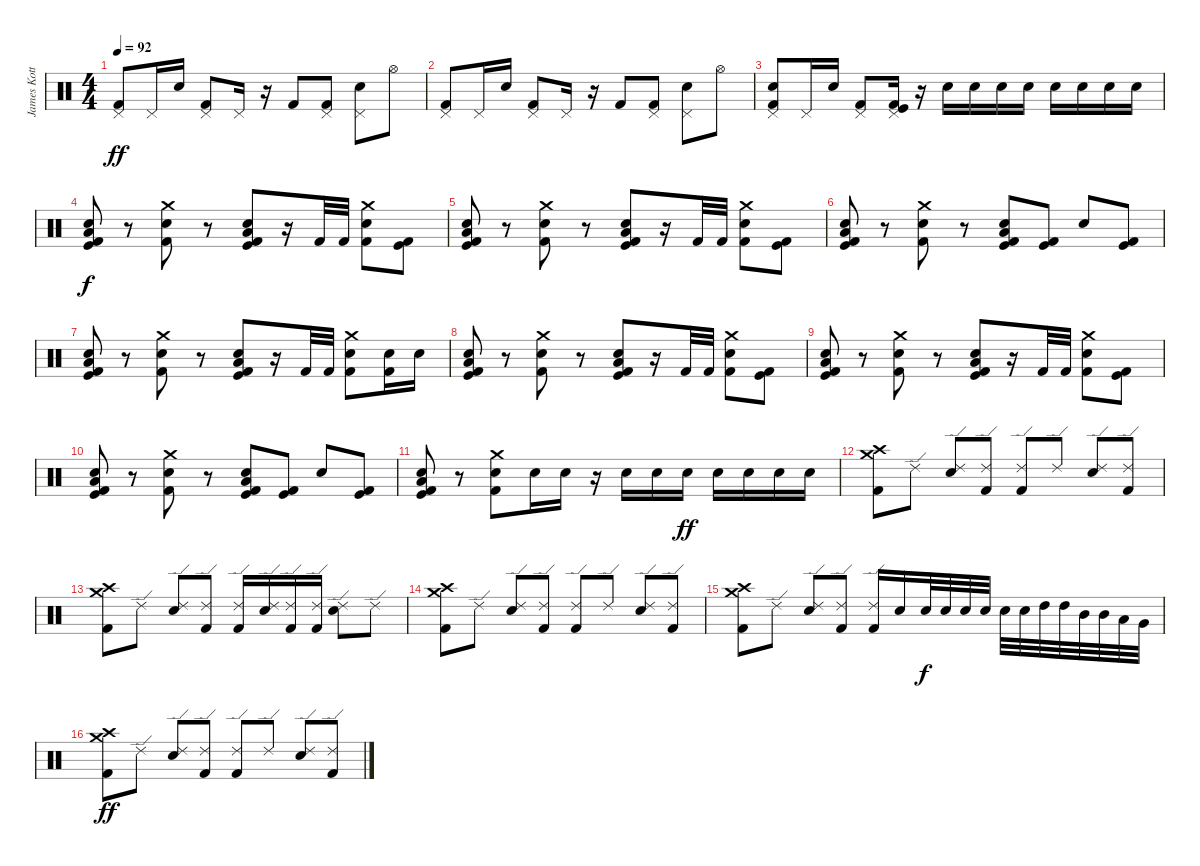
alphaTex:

\track ("James Kottak" "James Kott") {instrument percussion}
\staff {score}
\articulation defaults
\ts (4 4)
\tempo 92
\clef neutral
\ks c
("Pedal Hi-Hat (hit)" "Kick (hit) 2").8{dy ff} "Pedal Hi-Hat (hit)".16 "Electric Snare (hit)".16 ("Pedal Hi-Hat (hit)" "Kick (hit) 2").8 "Pedal Hi-Hat (hit)".16 r.16 "Kick (hit) 2".8 ("Pedal Hi-Hat (hit)" "Kick (hit) 2").8 ("Pedal Hi-Hat (hit)" "Electric Snare (hit)").8 "Hi-Hat (open)".8 |
("Pedal Hi-Hat (hit)" "Kick (hit) 2").8 "Pedal Hi-Hat (hit)".16 "Electric Snare (hit)".16 ("Pedal Hi-Hat (hit)" "Kick (hit) 2").8 "Pedal Hi-Hat (hit)".16 r.16 "Kick (hit) 2".8 ("Pedal Hi-Hat (hit)" "Kick (hit) 2").8 ("Pedal Hi-Hat (hit)" "Electric Snare (hit)").8 "Hi-Hat (open)".8 |
("Pedal Hi-Hat (hit)" "Electric Snare (hit)" "Kick (hit) 2").8 "Pedal Hi-Hat (hit)".16 "Electric Snare (hit)".16 ("Pedal Hi-Hat (hit)" "Kick (hit) 2").8 ("Pedal Hi-Hat (hit)" "Kick (hit) 2" "Kick (hit)").16 r.16 "Electric Snare (hit)".16 "Electric Snare (hit)".16 "Electric Snare (hit)".16 "Electric Snare (hit)".16 "Electric Snare (hit)".16 "Electric Snare (hit)".16 "Electric Snare (hit)".16 "Electric Snare (hit)".16 |
("Electric Snare (hit)" "Kick (hit)" "Low Floor Tom (hit)" "Kick (hit) 2").8{dy f} r.8 ("Crash medium (hit)" "Electric Snare (hit)" "Kick (hit) 2").8 r.8 ("Electric Snare (hit)" "Kick (hit)" "Low Floor Tom (hit)" "Kick (hit) 2").8 r.16 "Kick (hit) 2".32 "Kick (hit) 2".32 ("Crash medium (hit)" "Electric Snare (hit)" "Kick (hit) 2").8 ("Kick (hit)" "Kick (hit) 2").8 |
("Electric Snare (hit)" "Kick (hit)" "Low Floor Tom (hit)" "Kick (hit) 2").8 r.8 ("Crash medium (hit)" "Electric Snare (hit)" "Kick (hit) 2").8 r.8 ("Electric Snare (hit)" "Kick (hit)" "Low Floor Tom (hit)" "Kick (hit) 2").8 r.16 "Kick (hit) 2".32 "Kick (hit) 2".32 ("Crash medium (hit)" "Electric Snare (hit)" "Kick (hit) 2").8 ("Kick (hit)" "Kick (hit) 2").8 |
("Electric Snare (hit)" "Kick (hit)" "Low Floor Tom (hit)" "Kick (hit) 2").8 r.8 ("Crash medium (hit)" "Electric Snare (hit)" "Kick (hit) 2").8 r.8 ("Electric Snare (hit)" "Kick (hit)" "Low Floor Tom (hit)" "Kick (hit) 2").8 ("Kick (hit) 2" "Kick (hit)").8 "Electric Snare (hit)".8 ("Kick (hit) 2" "Kick (hit)").8 |
("Electric Snare (hit)" "Kick (hit)" "Low Floor Tom (hit)" "Kick (hit) 2").8 r.8 ("Crash medium (hit)" "Electric Snare (hit)" "Kick (hit) 2").8 r.8 ("Electric Snare (hit)" "Kick (hit)" "Low Floor Tom (hit)" "Kick (hit) 2").8 r.16 "Kick (hit) 2".32 "Kick (hit) 2".32 ("Crash medium (hit)" "Electric Snare (hit)" "Kick (hit) 2").8 ("Electric Snare (hit)" "Kick (hit) 2").16 "Electric Snare (hit)".16 |
("Electric Snare (hit)" "Kick (hit)" "Low Floor Tom (hit)" "Kick (hit) 2").8 r.8 ("Crash medium (hit)" "Electric Snare (hit)" "Kick (hit) 2").8 r.8 ("Electric Snare (hit)" "Kick (hit)" "Low Floor Tom (hit)" "Kick (hit) 2").8 r.16 "Kick (hit) 2".32 "Kick (hit) 2".32 ("Crash medium (hit)" "Electric Snare (hit)" "Kick (hit) 2").8 ("Kick (hit)" "Kick (hit) 2").8 |
("Electric Snare (hit)" "Kick (hit)" "Low Floor Tom (hit)" "Kick (hit) 2").8 r.8 ("Crash medium (hit)" "Electric Snare (hit)" "Kick (hit) 2").8 r.8 ("Electric Snare (hit)" "Kick (hit)" "Low Floor Tom (hit)" "Kick (hit) 2").8 r.16 "Kick (hit) 2".32 "Kick (hit) 2".32 ("Crash medium (hit)" "Electric Snare (hit)" "Kick (hit) 2").8 ("Kick (hit)" "Kick (hit) 2").8 |
("Electric Snare (hit)" "Kick (hit)" "Low Floor Tom (hit)" "Kick (hit) 2").8 r.8 ("Crash medium (hit)" "Electric Snare (hit)" "Kick (hit) 2").8 r.8 ("Electric Snare (hit)" "Kick (hit)" "Low Floor Tom (hit)" "Kick (hit) 2").8 ("Kick (hit) 2" "Kick (hit)").8 "Electric Snare (hit)".8 ("Kick (hit) 2" "Kick (hit)").8 |
("Electric Snare (hit)" "Kick (hit)" "Low Floor Tom (hit)" "Kick (hit) 2").8 r.8 ("Crash medium (hit)" "Electric Snare (hit)" "Kick (hit) 2").8 "Electric Snare (hit)".16 "Electric Snare (hit)".16 r.16 "Electric Snare (hit)".16 "Electric Snare (hit)".16 "Electric Snare (hit)".16{dy ff} "Electric Snare (hit)".16 "Electric Snare (hit)".16 "Electric Snare (hit)".16 "Electric Snare (hit)".16 |
("Crash high (hit)" "Crash medium (hit)" "Kick (hit) 2").8 "Ride (edge) 2".8 ("Ride (edge) 2" "Electric Snare (hit)").8 ("Ride (edge) 2" "Kick (hit) 2").8 ("Ride (edge) 2" "Kick (hit) 2").8 "Ride (edge) 2".8 ("Ride (edge) 2" "Electric Snare (hit)").8 ("Ride (edge) 2" "Kick (hit) 2").8 |
("Crash high (hit)" "Crash medium (hit)" "Kick (hit) 2").8 "Ride (edge) 2".8 ("Ride (edge) 2" "Electric Snare (hit)").8 ("Ride (edge) 2" "Kick (hit) 2").8 ("Ride (edge) 2" "Kick (hit) 2").16 ("Ride (edge) 2" "Electric Snare (hit)").16 ("Ride (edge) 2" "Kick (hit) 2").16 ("Ride (edge) 2" "Kick (hit) 2").16 ("Ride (edge) 2" "Electric Snare (hit)").8 "Ride (edge) 2".8 |
("Crash high (hit)" "Crash medium (hit)" "Kick (hit) 2").8 "Ride (edge) 2".8 ("Ride (edge) 2" "Electric Snare (hit)").8 ("Ride (edge) 2" "Kick (hit) 2").8 ("Ride (edge) 2" "Kick (hit) 2").8 "Ride (edge) 2".8 ("Ride (edge) 2" "Electric Snare (hit)").8 ("Ride (edge) 2" "Kick (hit) 2").8 |
("Crash high (hit)" "Crash medium (hit)" "Kick (hit) 2").8 "Ride (edge) 2".8 ("Ride (edge) 2" "Electric Snare (hit)").8 ("Ride (edge) 2" "Kick (hit) 2").8 ("Ride (edge) 2" "Kick (hit) 2").16 "Electric Snare (hit)".16 "Electric Snare (hit)".32{dy f} "Electric Snare (hit)".32 "Electric Snare (hit)".32 "Electric Snare (hit)".32 "Electric Snare (hit)".32 "Electric Snare (hit)".32 "High Tom (hit)".32 "High Tom (hit)".32 "Mid Tom (hit)".32 "Mid Tom (hit)".32 "Low Tom (hit)".32 "Very Low Tom (hit)".32 |
("Crash high (hit)" "Crash medium (hit)" "Kick (hit) 2").8{dy ff} "Ride (edge) 2".8 ("Ride (edge) 2" "Electric Snare (hit)").8 ("Ride (edge) 2" "Kick (hit) 2").8 ("Ride (edge) 2" "Kick (hit) 2").8 "Ride (edge) 2".8 ("Ride (edge) 2" "Electric Snare (hit)").8 ("Ride (edge) 2" "Kick (hit) 2").8
